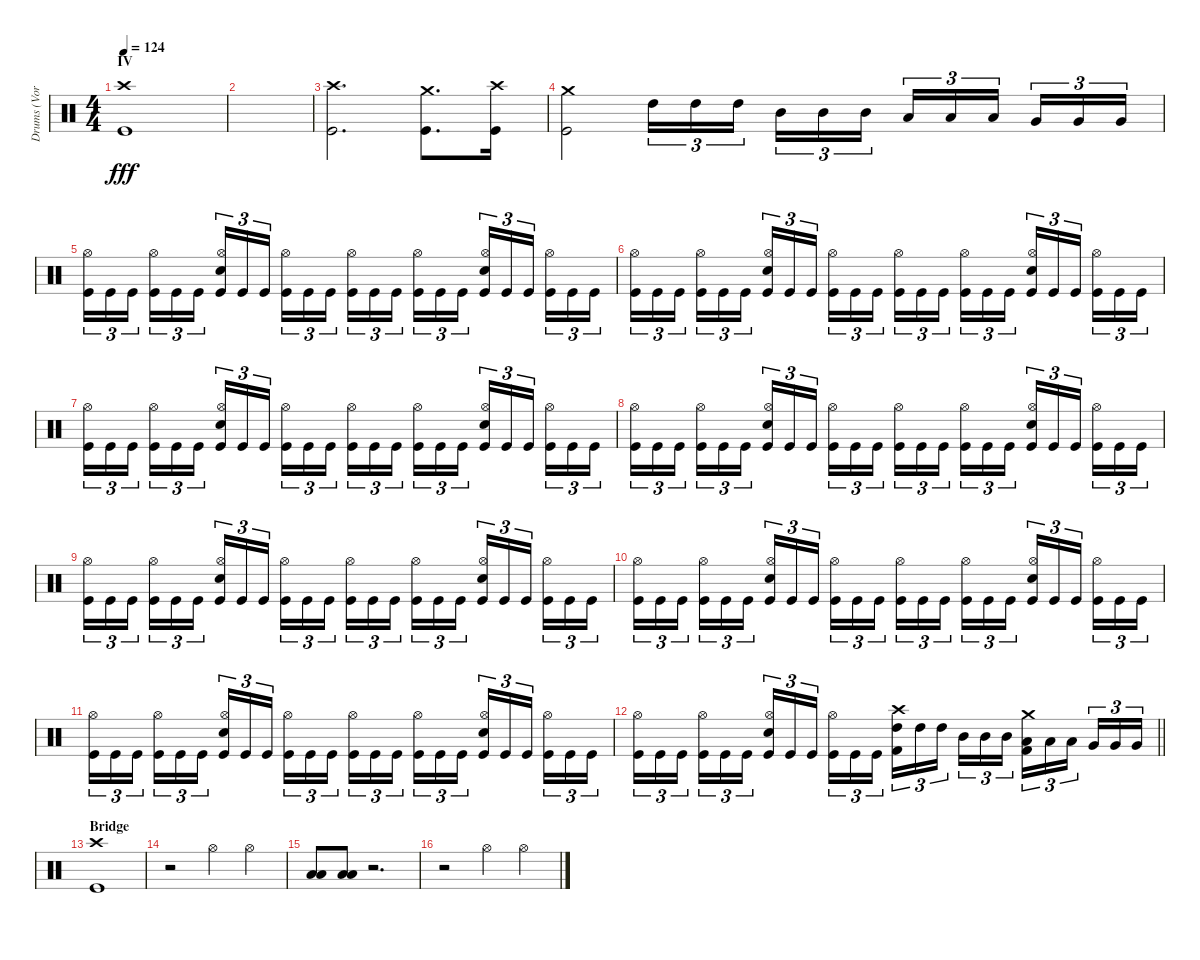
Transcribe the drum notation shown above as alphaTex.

\track ("Drums (Vortex)" "Drums (Vor") {instrument percussion}
\staff {score}
\articulation defaults
\ts (4 4)
\section ("" "IV")
\tempo 124
\clef neutral
\ks c
("Crash high (hit)" "Kick (hit)").1{dy fff} |
|
("Crash high (hit)" "Kick (hit)").2{d} ("Crash medium (hit)" "Kick (hit)").8{d} ("Crash high (hit)" "Kick (hit)").16 |
("Crash medium (hit)" "Kick (hit)").2 "High Tom (hit)".16{tu (3 2)} "High Tom (hit)".16{tu (3 2)} "High Tom (hit)".16{tu (3 2) beam splitsecondary} "Mid Tom (hit)".16{tu (3 2)} "Mid Tom (hit)".16{tu (3 2)} "Mid Tom (hit)".16{tu (3 2)} "Low Tom (hit)".16{tu (3 2)} "Low Tom (hit)".16{tu (3 2)} "Low Tom (hit)".16{tu (3 2) beam splitsecondary} "Very Low Tom (hit)".16{tu (3 2)} "Very Low Tom (hit)".16{tu (3 2)} "Very Low Tom (hit)".16{tu (3 2)} |
("Kick (hit)" "Hi-Hat (open)").16{tu (3 2)} "Kick (hit)".16{tu (3 2)} "Kick (hit)".16{tu (3 2) beam splitsecondary} ("Kick (hit)" "Hi-Hat (open)").16{tu (3 2)} "Kick (hit)".16{tu (3 2)} "Kick (hit)".16{tu (3 2)} ("Kick (hit)" "Snare (hit) 2" "Hi-Hat (open)").16{tu (3 2)} "Kick (hit)".16{tu (3 2)} "Kick (hit)".16{tu (3 2) beam splitsecondary} ("Kick (hit)" "Hi-Hat (open)").16{tu (3 2)} "Kick (hit)".16{tu (3 2)} "Kick (hit)".16{tu (3 2)} ("Kick (hit)" "Hi-Hat (open)").16{tu (3 2)} "Kick (hit)".16{tu (3 2)} "Kick (hit)".16{tu (3 2) beam splitsecondary} ("Kick (hit)" "Hi-Hat (open)").16{tu (3 2)} "Kick (hit)".16{tu (3 2)} "Kick (hit)".16{tu (3 2)} ("Kick (hit)" "Snare (hit) 2" "Hi-Hat (open)").16{tu (3 2)} "Kick (hit)".16{tu (3 2)} "Kick (hit)".16{tu (3 2) beam splitsecondary} ("Kick (hit)" "Hi-Hat (open)").16{tu (3 2)} "Kick (hit)".16{tu (3 2)} "Kick (hit)".16{tu (3 2)} |
("Kick (hit)" "Hi-Hat (open)").16{tu (3 2)} "Kick (hit)".16{tu (3 2)} "Kick (hit)".16{tu (3 2) beam splitsecondary} ("Kick (hit)" "Hi-Hat (open)").16{tu (3 2)} "Kick (hit)".16{tu (3 2)} "Kick (hit)".16{tu (3 2)} ("Kick (hit)" "Snare (hit) 2" "Hi-Hat (open)").16{tu (3 2)} "Kick (hit)".16{tu (3 2)} "Kick (hit)".16{tu (3 2) beam splitsecondary} ("Kick (hit)" "Hi-Hat (open)").16{tu (3 2)} "Kick (hit)".16{tu (3 2)} "Kick (hit)".16{tu (3 2)} ("Kick (hit)" "Hi-Hat (open)").16{tu (3 2)} "Kick (hit)".16{tu (3 2)} "Kick (hit)".16{tu (3 2) beam splitsecondary} ("Kick (hit)" "Hi-Hat (open)").16{tu (3 2)} "Kick (hit)".16{tu (3 2)} "Kick (hit)".16{tu (3 2)} ("Kick (hit)" "Snare (hit) 2" "Hi-Hat (open)").16{tu (3 2)} "Kick (hit)".16{tu (3 2)} "Kick (hit)".16{tu (3 2) beam splitsecondary} ("Kick (hit)" "Hi-Hat (open)").16{tu (3 2)} "Kick (hit)".16{tu (3 2)} "Kick (hit)".16{tu (3 2)} |
("Kick (hit)" "Hi-Hat (open)").16{tu (3 2)} "Kick (hit)".16{tu (3 2)} "Kick (hit)".16{tu (3 2) beam splitsecondary} ("Kick (hit)" "Hi-Hat (open)").16{tu (3 2)} "Kick (hit)".16{tu (3 2)} "Kick (hit)".16{tu (3 2)} ("Kick (hit)" "Snare (hit) 2" "Hi-Hat (open)").16{tu (3 2)} "Kick (hit)".16{tu (3 2)} "Kick (hit)".16{tu (3 2) beam splitsecondary} ("Kick (hit)" "Hi-Hat (open)").16{tu (3 2)} "Kick (hit)".16{tu (3 2)} "Kick (hit)".16{tu (3 2)} ("Kick (hit)" "Hi-Hat (open)").16{tu (3 2)} "Kick (hit)".16{tu (3 2)} "Kick (hit)".16{tu (3 2) beam splitsecondary} ("Kick (hit)" "Hi-Hat (open)").16{tu (3 2)} "Kick (hit)".16{tu (3 2)} "Kick (hit)".16{tu (3 2)} ("Kick (hit)" "Snare (hit) 2" "Hi-Hat (open)").16{tu (3 2)} "Kick (hit)".16{tu (3 2)} "Kick (hit)".16{tu (3 2) beam splitsecondary} ("Kick (hit)" "Hi-Hat (open)").16{tu (3 2)} "Kick (hit)".16{tu (3 2)} "Kick (hit)".16{tu (3 2)} |
("Kick (hit)" "Hi-Hat (open)").16{tu (3 2)} "Kick (hit)".16{tu (3 2)} "Kick (hit)".16{tu (3 2) beam splitsecondary} ("Kick (hit)" "Hi-Hat (open)").16{tu (3 2)} "Kick (hit)".16{tu (3 2)} "Kick (hit)".16{tu (3 2)} ("Kick (hit)" "Snare (hit) 2" "Hi-Hat (open)").16{tu (3 2)} "Kick (hit)".16{tu (3 2)} "Kick (hit)".16{tu (3 2) beam splitsecondary} ("Kick (hit)" "Hi-Hat (open)").16{tu (3 2)} "Kick (hit)".16{tu (3 2)} "Kick (hit)".16{tu (3 2)} ("Kick (hit)" "Hi-Hat (open)").16{tu (3 2)} "Kick (hit)".16{tu (3 2)} "Kick (hit)".16{tu (3 2) beam splitsecondary} ("Kick (hit)" "Hi-Hat (open)").16{tu (3 2)} "Kick (hit)".16{tu (3 2)} "Kick (hit)".16{tu (3 2)} ("Kick (hit)" "Snare (hit) 2" "Hi-Hat (open)").16{tu (3 2)} "Kick (hit)".16{tu (3 2)} "Kick (hit)".16{tu (3 2) beam splitsecondary} ("Kick (hit)" "Hi-Hat (open)").16{tu (3 2)} "Kick (hit)".16{tu (3 2)} "Kick (hit)".16{tu (3 2)} |
("Kick (hit)" "Hi-Hat (open)").16{tu (3 2)} "Kick (hit)".16{tu (3 2)} "Kick (hit)".16{tu (3 2) beam splitsecondary} ("Kick (hit)" "Hi-Hat (open)").16{tu (3 2)} "Kick (hit)".16{tu (3 2)} "Kick (hit)".16{tu (3 2)} ("Kick (hit)" "Snare (hit) 2" "Hi-Hat (open)").16{tu (3 2)} "Kick (hit)".16{tu (3 2)} "Kick (hit)".16{tu (3 2) beam splitsecondary} ("Kick (hit)" "Hi-Hat (open)").16{tu (3 2)} "Kick (hit)".16{tu (3 2)} "Kick (hit)".16{tu (3 2)} ("Kick (hit)" "Hi-Hat (open)").16{tu (3 2)} "Kick (hit)".16{tu (3 2)} "Kick (hit)".16{tu (3 2) beam splitsecondary} ("Kick (hit)" "Hi-Hat (open)").16{tu (3 2)} "Kick (hit)".16{tu (3 2)} "Kick (hit)".16{tu (3 2)} ("Kick (hit)" "Snare (hit) 2" "Hi-Hat (open)").16{tu (3 2)} "Kick (hit)".16{tu (3 2)} "Kick (hit)".16{tu (3 2) beam splitsecondary} ("Kick (hit)" "Hi-Hat (open)").16{tu (3 2)} "Kick (hit)".16{tu (3 2)} "Kick (hit)".16{tu (3 2)} |
("Kick (hit)" "Hi-Hat (open)").16{tu (3 2)} "Kick (hit)".16{tu (3 2)} "Kick (hit)".16{tu (3 2) beam splitsecondary} ("Kick (hit)" "Hi-Hat (open)").16{tu (3 2)} "Kick (hit)".16{tu (3 2)} "Kick (hit)".16{tu (3 2)} ("Kick (hit)" "Snare (hit) 2" "Hi-Hat (open)").16{tu (3 2)} "Kick (hit)".16{tu (3 2)} "Kick (hit)".16{tu (3 2) beam splitsecondary} ("Kick (hit)" "Hi-Hat (open)").16{tu (3 2)} "Kick (hit)".16{tu (3 2)} "Kick (hit)".16{tu (3 2)} ("Kick (hit)" "Hi-Hat (open)").16{tu (3 2)} "Kick (hit)".16{tu (3 2)} "Kick (hit)".16{tu (3 2) beam splitsecondary} ("Kick (hit)" "Hi-Hat (open)").16{tu (3 2)} "Kick (hit)".16{tu (3 2)} "Kick (hit)".16{tu (3 2)} ("Kick (hit)" "Snare (hit) 2" "Hi-Hat (open)").16{tu (3 2)} "Kick (hit)".16{tu (3 2)} "Kick (hit)".16{tu (3 2) beam splitsecondary} ("Kick (hit)" "Hi-Hat (open)").16{tu (3 2)} "Kick (hit)".16{tu (3 2)} "Kick (hit)".16{tu (3 2)} |
("Kick (hit)" "Hi-Hat (open)").16{tu (3 2)} "Kick (hit)".16{tu (3 2)} "Kick (hit)".16{tu (3 2) beam splitsecondary} ("Kick (hit)" "Hi-Hat (open)").16{tu (3 2)} "Kick (hit)".16{tu (3 2)} "Kick (hit)".16{tu (3 2)} ("Kick (hit)" "Snare (hit) 2" "Hi-Hat (open)").16{tu (3 2)} "Kick (hit)".16{tu (3 2)} "Kick (hit)".16{tu (3 2) beam splitsecondary} ("Kick (hit)" "Hi-Hat (open)").16{tu (3 2)} "Kick (hit)".16{tu (3 2)} "Kick (hit)".16{tu (3 2)} ("Kick (hit)" "Hi-Hat (open)").16{tu (3 2)} "Kick (hit)".16{tu (3 2)} "Kick (hit)".16{tu (3 2) beam splitsecondary} ("Kick (hit)" "Hi-Hat (open)").16{tu (3 2)} "Kick (hit)".16{tu (3 2)} "Kick (hit)".16{tu (3 2)} ("Kick (hit)" "Snare (hit) 2" "Hi-Hat (open)").16{tu (3 2)} "Kick (hit)".16{tu (3 2)} "Kick (hit)".16{tu (3 2) beam splitsecondary} ("Kick (hit)" "Hi-Hat (open)").16{tu (3 2)} "Kick (hit)".16{tu (3 2)} "Kick (hit)".16{tu (3 2)} |
\barLineRight lightlight
("Kick (hit)" "Hi-Hat (open)").16{tu (3 2)} "Kick (hit)".16{tu (3 2)} "Kick (hit)".16{tu (3 2) beam splitsecondary} ("Kick (hit)" "Hi-Hat (open)").16{tu (3 2)} "Kick (hit)".16{tu (3 2)} "Kick (hit)".16{tu (3 2)} ("Kick (hit)" "Snare (hit) 2" "Hi-Hat (open)").16{tu (3 2)} "Kick (hit)".16{tu (3 2)} "Kick (hit)".16{tu (3 2) beam splitsecondary} ("Kick (hit)" "Hi-Hat (open)").16{tu (3 2)} "Kick (hit)".16{tu (3 2)} "Kick (hit)".16{tu (3 2)} ("Crash high (hit)" "High Tom (hit)" "Kick (hit) 2").16{tu (3 2)} "High Tom (hit)".16{tu (3 2)} "High Tom (hit)".16{tu (3 2) beam splitsecondary} "Mid Tom (hit)".16{tu (3 2)} "Mid Tom (hit)".16{tu (3 2)} "Mid Tom (hit)".16{tu (3 2)} ("Crash medium (hit)" "Low Tom (hit)" "Kick (hit) 2").16{tu (3 2)} "Low Tom (hit)".16{tu (3 2)} "Low Tom (hit)".16{tu (3 2) beam splitsecondary} "Very Low Tom (hit)".16{tu (3 2)} "Very Low Tom (hit)".16{tu (3 2)} "Very Low Tom (hit)".16{tu (3 2)} |
\section ("" "Bridge")
("Crash high (hit)" "Kick (hit)").1 |
r.2 "Hi-Hat (open)".4 "Hi-Hat (open)".4 |
("Low Tom (hit)" "Low Floor Tom (hit)").8 ("Low Tom (hit)" "Low Floor Tom (hit)").8 r.2{d} |
r.2 "Hi-Hat (open)".4 "Hi-Hat (open)".4
